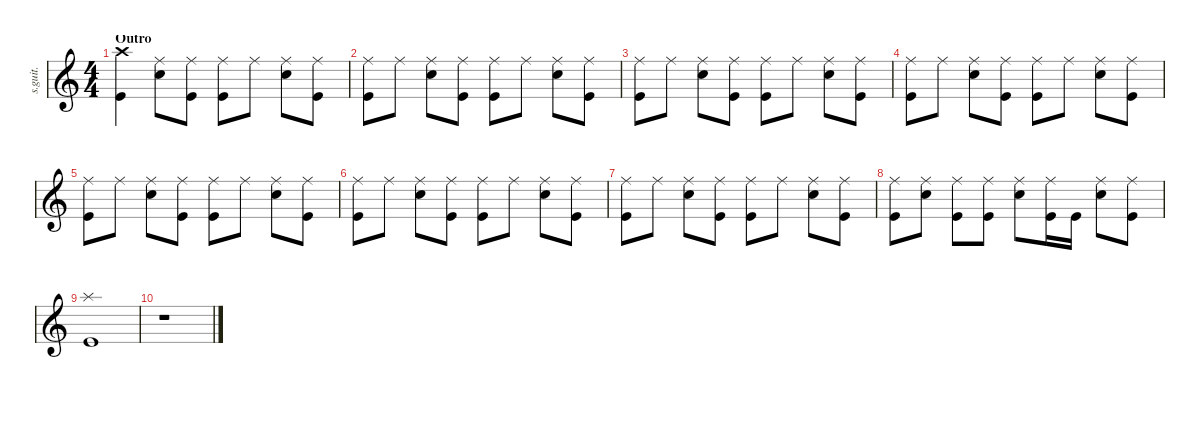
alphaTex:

\defaultSystemsLayout 4
\hideDynamics
\bracketExtendMode nobrackets
\track ("Chad Channing - Drums" "s.guit.") {instrument percussion}
\staff {score}
\articulation defaults
\ts (4 4)
\beaming (8 2 2 2 2)
\section ("" "Outro")
\tempo (133 hide)
\clef g2
\ks c
("Kick (hit)" "Crash high (hit)").4{lyrics (0 "") lyrics (1 "") lyrics (2 "") lyrics (3 "") lyrics (4 "") dy f} ("Ride (middle)" "Snare (hit) 2").8{lyrics (0 "") lyrics (1 "") lyrics (2 "") lyrics (3 "") lyrics (4 "")} ("Ride (middle)" "Kick (hit)").8{lyrics (0 "") lyrics (1 "") lyrics (2 "") lyrics (3 "") lyrics (4 "")} ("Ride (middle)" "Kick (hit)").8{lyrics (0 "") lyrics (1 "") lyrics (2 "") lyrics (3 "") lyrics (4 "")} "Ride (middle)".8{lyrics (0 "") lyrics (1 "") lyrics (2 "") lyrics (3 "") lyrics (4 "")} ("Ride (middle)" "Snare (hit) 2").8{lyrics (0 "") lyrics (1 "") lyrics (2 "") lyrics (3 "") lyrics (4 "")} ("Ride (middle)" "Kick (hit)").8{lyrics (0 "") lyrics (1 "") lyrics (2 "") lyrics (3 "") lyrics (4 "")} |
("Ride (middle)" "Kick (hit)").8{lyrics (0 "") lyrics (1 "") lyrics (2 "") lyrics (3 "") lyrics (4 "")} "Ride (middle)".8{lyrics (0 "") lyrics (1 "") lyrics (2 "") lyrics (3 "") lyrics (4 "")} ("Ride (middle)" "Snare (hit) 2").8{lyrics (0 "") lyrics (1 "") lyrics (2 "") lyrics (3 "") lyrics (4 "")} ("Ride (middle)" "Kick (hit)").8{lyrics (0 "") lyrics (1 "") lyrics (2 "") lyrics (3 "") lyrics (4 "")} ("Ride (middle)" "Kick (hit)").8{lyrics (0 "") lyrics (1 "") lyrics (2 "") lyrics (3 "") lyrics (4 "")} "Ride (middle)".8{lyrics (0 "") lyrics (1 "") lyrics (2 "") lyrics (3 "") lyrics (4 "")} ("Ride (middle)" "Snare (hit) 2").8{lyrics (0 "") lyrics (1 "") lyrics (2 "") lyrics (3 "") lyrics (4 "")} ("Ride (middle)" "Kick (hit)").8{lyrics (0 "") lyrics (1 "") lyrics (2 "") lyrics (3 "") lyrics (4 "")} |
("Ride (middle)" "Kick (hit)").8{lyrics (0 "") lyrics (1 "") lyrics (2 "") lyrics (3 "") lyrics (4 "")} "Ride (middle)".8{lyrics (0 "") lyrics (1 "") lyrics (2 "") lyrics (3 "") lyrics (4 "")} ("Ride (middle)" "Snare (hit) 2").8{lyrics (0 "") lyrics (1 "") lyrics (2 "") lyrics (3 "") lyrics (4 "")} ("Ride (middle)" "Kick (hit)").8{lyrics (0 "") lyrics (1 "") lyrics (2 "") lyrics (3 "") lyrics (4 "")} ("Ride (middle)" "Kick (hit)").8{lyrics (0 "") lyrics (1 "") lyrics (2 "") lyrics (3 "") lyrics (4 "")} "Ride (middle)".8{lyrics (0 "") lyrics (1 "") lyrics (2 "") lyrics (3 "") lyrics (4 "")} ("Ride (middle)" "Snare (hit) 2").8{lyrics (0 "") lyrics (1 "") lyrics (2 "") lyrics (3 "") lyrics (4 "")} ("Ride (middle)" "Kick (hit)").8{lyrics (0 "") lyrics (1 "") lyrics (2 "") lyrics (3 "") lyrics (4 "")} |
("Ride (middle)" "Kick (hit)").8{lyrics (0 "") lyrics (1 "") lyrics (2 "") lyrics (3 "") lyrics (4 "")} "Ride (middle)".8{lyrics (0 "") lyrics (1 "") lyrics (2 "") lyrics (3 "") lyrics (4 "")} ("Ride (middle)" "Snare (hit) 2").8{lyrics (0 "") lyrics (1 "") lyrics (2 "") lyrics (3 "") lyrics (4 "")} ("Ride (middle)" "Kick (hit)").8{lyrics (0 "") lyrics (1 "") lyrics (2 "") lyrics (3 "") lyrics (4 "")} ("Ride (middle)" "Kick (hit)").8{lyrics (0 "") lyrics (1 "") lyrics (2 "") lyrics (3 "") lyrics (4 "")} "Ride (middle)".8{lyrics (0 "") lyrics (1 "") lyrics (2 "") lyrics (3 "") lyrics (4 "")} ("Ride (middle)" "Snare (hit) 2").8{lyrics (0 "") lyrics (1 "") lyrics (2 "") lyrics (3 "") lyrics (4 "")} ("Ride (middle)" "Kick (hit)").8{lyrics (0 "") lyrics (1 "") lyrics (2 "") lyrics (3 "") lyrics (4 "")} |
("Ride (middle)" "Kick (hit)").8{lyrics (0 "") lyrics (1 "") lyrics (2 "") lyrics (3 "") lyrics (4 "")} "Ride (middle)".8{lyrics (0 "") lyrics (1 "") lyrics (2 "") lyrics (3 "") lyrics (4 "")} ("Ride (middle)" "Snare (hit) 2").8{lyrics (0 "") lyrics (1 "") lyrics (2 "") lyrics (3 "") lyrics (4 "")} ("Ride (middle)" "Kick (hit)").8{lyrics (0 "") lyrics (1 "") lyrics (2 "") lyrics (3 "") lyrics (4 "")} ("Ride (middle)" "Kick (hit)").8{lyrics (0 "") lyrics (1 "") lyrics (2 "") lyrics (3 "") lyrics (4 "")} "Ride (middle)".8{lyrics (0 "") lyrics (1 "") lyrics (2 "") lyrics (3 "") lyrics (4 "")} ("Ride (middle)" "Snare (hit) 2").8{lyrics (0 "") lyrics (1 "") lyrics (2 "") lyrics (3 "") lyrics (4 "")} ("Ride (middle)" "Kick (hit)").8{lyrics (0 "") lyrics (1 "") lyrics (2 "") lyrics (3 "") lyrics (4 "")} |
("Ride (middle)" "Kick (hit)").8{lyrics (0 "") lyrics (1 "") lyrics (2 "") lyrics (3 "") lyrics (4 "")} "Ride (middle)".8{lyrics (0 "") lyrics (1 "") lyrics (2 "") lyrics (3 "") lyrics (4 "")} ("Ride (middle)" "Snare (hit) 2").8{lyrics (0 "") lyrics (1 "") lyrics (2 "") lyrics (3 "") lyrics (4 "")} ("Ride (middle)" "Kick (hit)").8{lyrics (0 "") lyrics (1 "") lyrics (2 "") lyrics (3 "") lyrics (4 "")} ("Ride (middle)" "Kick (hit)").8{lyrics (0 "") lyrics (1 "") lyrics (2 "") lyrics (3 "") lyrics (4 "")} "Ride (middle)".8{lyrics (0 "") lyrics (1 "") lyrics (2 "") lyrics (3 "") lyrics (4 "")} ("Ride (middle)" "Snare (hit) 2").8{lyrics (0 "") lyrics (1 "") lyrics (2 "") lyrics (3 "") lyrics (4 "")} ("Ride (middle)" "Kick (hit)").8{lyrics (0 "") lyrics (1 "") lyrics (2 "") lyrics (3 "") lyrics (4 "")} |
("Ride (middle)" "Kick (hit)").8{lyrics (0 "") lyrics (1 "") lyrics (2 "") lyrics (3 "") lyrics (4 "")} "Ride (middle)".8{lyrics (0 "") lyrics (1 "") lyrics (2 "") lyrics (3 "") lyrics (4 "")} ("Ride (middle)" "Snare (hit) 2").8{lyrics (0 "") lyrics (1 "") lyrics (2 "") lyrics (3 "") lyrics (4 "")} ("Ride (middle)" "Kick (hit)").8{lyrics (0 "") lyrics (1 "") lyrics (2 "") lyrics (3 "") lyrics (4 "")} ("Ride (middle)" "Kick (hit)").8{lyrics (0 "") lyrics (1 "") lyrics (2 "") lyrics (3 "") lyrics (4 "")} "Ride (middle)".8{lyrics (0 "") lyrics (1 "") lyrics (2 "") lyrics (3 "") lyrics (4 "")} ("Ride (middle)" "Snare (hit) 2").8{lyrics (0 "") lyrics (1 "") lyrics (2 "") lyrics (3 "") lyrics (4 "")} ("Ride (middle)" "Kick (hit)").8{lyrics (0 "") lyrics (1 "") lyrics (2 "") lyrics (3 "") lyrics (4 "")} |
("Ride (middle)" "Kick (hit)").8{lyrics (0 "") lyrics (1 "") lyrics (2 "") lyrics (3 "") lyrics (4 "")} ("Ride (middle)" "Snare (hit) 2").8{lyrics (0 "") lyrics (1 "") lyrics (2 "") lyrics (3 "") lyrics (4 "")} ("Ride (middle)" "Kick (hit)").8{lyrics (0 "") lyrics (1 "") lyrics (2 "") lyrics (3 "") lyrics (4 "")} ("Ride (middle)" "Kick (hit)").8{lyrics (0 "") lyrics (1 "") lyrics (2 "") lyrics (3 "") lyrics (4 "")} ("Ride (middle)" "Snare (hit) 2").8{lyrics (0 "") lyrics (1 "") lyrics (2 "") lyrics (3 "") lyrics (4 "")} ("Ride (middle)" "Kick (hit)").16{lyrics (0 "") lyrics (1 "") lyrics (2 "") lyrics (3 "") lyrics (4 "")} "Kick (hit)".16{lyrics (0 "") lyrics (1 "") lyrics (2 "") lyrics (3 "") lyrics (4 "")} ("Ride (middle)" "Snare (hit) 2").8{lyrics (0 "") lyrics (1 "") lyrics (2 "") lyrics (3 "") lyrics (4 "")} ("Ride (middle)" "Kick (hit)").8{lyrics (0 "") lyrics (1 "") lyrics (2 "") lyrics (3 "") lyrics (4 "")} |
("Splash (hit)" "Kick (hit)").1{lyrics (0 "") lyrics (1 "") lyrics (2 "") lyrics (3 "") lyrics (4 "")} |
\tempo (115 hide)
r.1
